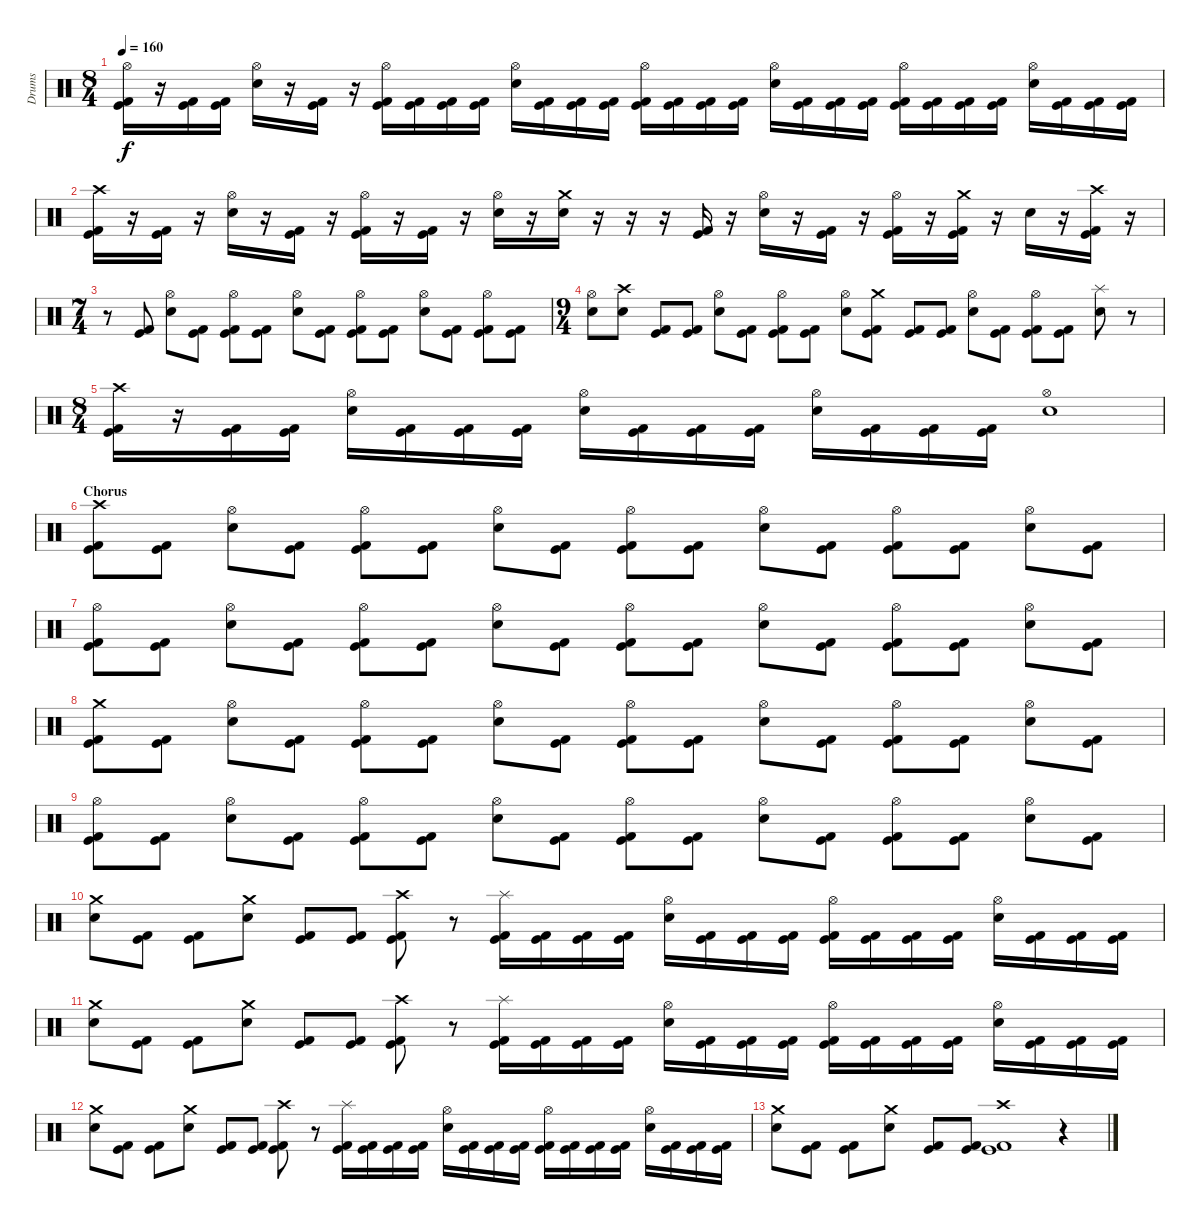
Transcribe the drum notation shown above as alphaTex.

\track ("Drums" "Drums") {instrument percussion}
\staff {score}
\articulation defaults
\ts (8 4)
\tempo 160
\clef neutral
\ks c
("Hi-Hat (open)" "Kick (hit)" "Kick (hit) 2").16{dy f} r.16 ("Kick (hit)" "Kick (hit) 2").16 ("Kick (hit)" "Kick (hit) 2").16 ("Hi-Hat (open)" "Electric Snare (hit)").16 r.16 ("Kick (hit)" "Kick (hit) 2").16 r.16 ("Hi-Hat (open)" "Kick (hit)" "Kick (hit) 2").16 ("Kick (hit)" "Kick (hit) 2").16 ("Kick (hit)" "Kick (hit) 2").16 ("Kick (hit) 2" "Kick (hit)").16 ("Hi-Hat (open)" "Electric Snare (hit)").16 ("Kick (hit)" "Kick (hit) 2").16 ("Kick (hit)" "Kick (hit) 2").16 ("Kick (hit)" "Kick (hit) 2").16 ("Hi-Hat (open)" "Kick (hit)" "Kick (hit) 2").16 ("Kick (hit)" "Kick (hit) 2").16 ("Kick (hit)" "Kick (hit) 2").16 ("Kick (hit)" "Kick (hit) 2").16 ("Hi-Hat (open)" "Electric Snare (hit)").16 ("Kick (hit)" "Kick (hit) 2").16 ("Kick (hit)" "Kick (hit) 2").16 ("Kick (hit)" "Kick (hit) 2").16 ("Hi-Hat (open)" "Kick (hit)" "Kick (hit) 2").16 ("Kick (hit)" "Kick (hit) 2").16 ("Kick (hit)" "Kick (hit) 2").16 ("Kick (hit)" "Kick (hit) 2").16 ("Hi-Hat (open)" "Electric Snare (hit)").16 ("Kick (hit)" "Kick (hit) 2").16 ("Kick (hit)" "Kick (hit) 2").16 ("Kick (hit)" "Kick (hit) 2").16 |
("Crash high (hit)" "Kick (hit)" "Kick (hit) 2").16 r.16 ("Kick (hit)" "Kick (hit) 2").16 r.16 ("Hi-Hat (open)" "Electric Snare (hit)").16 r.16 ("Kick (hit)" "Kick (hit) 2").16 r.16 ("Hi-Hat (open)" "Kick (hit)" "Kick (hit) 2").16 r.16 ("Kick (hit)" "Kick (hit) 2").16 r.16 ("Hi-Hat (open)" "Electric Snare (hit)").16 r.16 ("Crash medium (hit)" "Electric Snare (hit)").16 r.16 r.16 r.16 ("Kick (hit) 2" "Kick (hit)").16 r.16 ("Hi-Hat (open)" "Electric Snare (hit)").16 r.16 ("Kick (hit)" "Kick (hit) 2").16 r.16 ("Hi-Hat (open)" "Kick (hit)" "Kick (hit) 2").16 r.16 ("Crash medium (hit)" "Kick (hit)" "Kick (hit) 2").16 r.16 "Electric Snare (hit)".16 r.16 ("Crash high (hit)" "Kick (hit) 2" "Kick (hit)").16 r.16 |
\ts (7 4)
r.8 ("Kick (hit)" "Kick (hit) 2").8 ("Hi-Hat (open)" "Electric Snare (hit)").8 ("Kick (hit)" "Kick (hit) 2").8 ("Hi-Hat (open)" "Kick (hit)" "Kick (hit) 2").8 ("Kick (hit)" "Kick (hit) 2").8 ("Hi-Hat (open)" "Electric Snare (hit)").8 ("Kick (hit)" "Kick (hit) 2").8 ("Hi-Hat (open)" "Kick (hit)" "Kick (hit) 2").8 ("Kick (hit)" "Kick (hit) 2").8 ("Hi-Hat (open)" "Electric Snare (hit)").8 ("Kick (hit)" "Kick (hit) 2").8 ("Hi-Hat (open)" "Kick (hit)" "Kick (hit) 2").8 ("Kick (hit)" "Kick (hit) 2").8 |
\ts (9 4)
("Hi-Hat (open)" "Electric Snare (hit)").8 ("Crash high (hit)" "Electric Snare (hit)").8 ("Kick (hit)" "Kick (hit) 2").8 ("Kick (hit)" "Kick (hit) 2").8 ("Hi-Hat (open)" "Electric Snare (hit)").8 ("Kick (hit)" "Kick (hit) 2").8 ("Hi-Hat (open)" "Kick (hit)" "Kick (hit) 2").8 ("Kick (hit)" "Kick (hit) 2").8 ("Hi-Hat (open)" "Electric Snare (hit)").8 ("Crash medium (hit)" "Kick (hit)" "Kick (hit) 2").8 ("Kick (hit)" "Kick (hit) 2").8 ("Kick (hit)" "Kick (hit) 2").8 ("Hi-Hat (open)" "Electric Snare (hit)").8 ("Kick (hit)" "Kick (hit) 2").8 ("Hi-Hat (open)" "Kick (hit)" "Kick (hit) 2").8 ("Kick (hit)" "Kick (hit) 2").8 ("Splash (hit)" "Electric Snare (hit)").8 r.8 |
\ts (8 4)
("Crash high (hit)" "Kick (hit)" "Kick (hit) 2").16 r.16 ("Kick (hit)" "Kick (hit) 2").16 ("Kick (hit)" "Kick (hit) 2").16 ("Hi-Hat (open)" "Electric Snare (hit)").16 ("Kick (hit)" "Kick (hit) 2").16 ("Kick (hit)" "Kick (hit) 2").16 ("Kick (hit)" "Kick (hit) 2").16 ("Hi-Hat (open)" "Electric Snare (hit)").16 ("Kick (hit)" "Kick (hit) 2").16 ("Kick (hit)" "Kick (hit) 2").16 ("Kick (hit)" "Kick (hit) 2").16 ("Hi-Hat (open)" "Electric Snare (hit)").16 ("Kick (hit)" "Kick (hit) 2").16 ("Kick (hit)" "Kick (hit) 2").16 ("Kick (hit)" "Kick (hit) 2").16 ("Hi-Hat (open)" "Electric Snare (hit)").1 |
\section ("" "Chorus")
("Crash high (hit)" "Kick (hit)" "Kick (hit) 2").8 ("Kick (hit)" "Kick (hit) 2").8 ("Hi-Hat (open)" "Electric Snare (hit)").8 ("Kick (hit)" "Kick (hit) 2").8 ("Hi-Hat (open)" "Kick (hit)" "Kick (hit) 2").8 ("Kick (hit)" "Kick (hit) 2").8 ("Hi-Hat (open)" "Electric Snare (hit)").8 ("Kick (hit)" "Kick (hit) 2").8 ("Hi-Hat (open)" "Kick (hit)" "Kick (hit) 2").8 ("Kick (hit)" "Kick (hit) 2").8 ("Hi-Hat (open)" "Electric Snare (hit)").8 ("Kick (hit)" "Kick (hit) 2").8 ("Hi-Hat (open)" "Kick (hit)" "Kick (hit) 2").8 ("Kick (hit)" "Kick (hit) 2").8 ("Hi-Hat (open)" "Electric Snare (hit)").8 ("Kick (hit)" "Kick (hit) 2").8 |
("Hi-Hat (open)" "Kick (hit)" "Kick (hit) 2").8 ("Kick (hit)" "Kick (hit) 2").8 ("Hi-Hat (open)" "Electric Snare (hit)").8 ("Kick (hit)" "Kick (hit) 2").8 ("Hi-Hat (open)" "Kick (hit)" "Kick (hit) 2").8 ("Kick (hit)" "Kick (hit) 2").8 ("Hi-Hat (open)" "Electric Snare (hit)").8 ("Kick (hit)" "Kick (hit) 2").8 ("Hi-Hat (open)" "Kick (hit)" "Kick (hit) 2").8 ("Kick (hit)" "Kick (hit) 2").8 ("Hi-Hat (open)" "Electric Snare (hit)").8 ("Kick (hit)" "Kick (hit) 2").8 ("Hi-Hat (open)" "Kick (hit)" "Kick (hit) 2").8 ("Kick (hit)" "Kick (hit) 2").8 ("Hi-Hat (open)" "Electric Snare (hit)").8 ("Kick (hit)" "Kick (hit) 2").8 |
("Crash medium (hit)" "Kick (hit)" "Kick (hit) 2").8 ("Kick (hit)" "Kick (hit) 2").8 ("Hi-Hat (open)" "Electric Snare (hit)").8 ("Kick (hit)" "Kick (hit) 2").8 ("Hi-Hat (open)" "Kick (hit)" "Kick (hit) 2").8 ("Kick (hit)" "Kick (hit) 2").8 ("Hi-Hat (open)" "Electric Snare (hit)").8 ("Kick (hit)" "Kick (hit) 2").8 ("Hi-Hat (open)" "Kick (hit)" "Kick (hit) 2").8 ("Kick (hit)" "Kick (hit) 2").8 ("Hi-Hat (open)" "Electric Snare (hit)").8 ("Kick (hit)" "Kick (hit) 2").8 ("Hi-Hat (open)" "Kick (hit)" "Kick (hit) 2").8 ("Kick (hit)" "Kick (hit) 2").8 ("Hi-Hat (open)" "Electric Snare (hit)").8 ("Kick (hit)" "Kick (hit) 2").8 |
("Hi-Hat (open)" "Kick (hit)" "Kick (hit) 2").8 ("Kick (hit)" "Kick (hit) 2").8 ("Hi-Hat (open)" "Electric Snare (hit)").8 ("Kick (hit)" "Kick (hit) 2").8 ("Hi-Hat (open)" "Kick (hit)" "Kick (hit) 2").8 ("Kick (hit)" "Kick (hit) 2").8 ("Hi-Hat (open)" "Electric Snare (hit)").8 ("Kick (hit)" "Kick (hit) 2").8 ("Hi-Hat (open)" "Kick (hit)" "Kick (hit) 2").8 ("Kick (hit)" "Kick (hit) 2").8 ("Hi-Hat (open)" "Electric Snare (hit)").8 ("Kick (hit)" "Kick (hit) 2").8 ("Hi-Hat (open)" "Kick (hit)" "Kick (hit) 2").8 ("Kick (hit)" "Kick (hit) 2").8 ("Hi-Hat (open)" "Electric Snare (hit)").8 ("Kick (hit)" "Kick (hit) 2").8 |
("Crash medium (hit)" "Electric Snare (hit)").8 ("Kick (hit)" "Kick (hit) 2").8 ("Kick (hit)" "Kick (hit) 2").8 ("Crash medium (hit)" "Electric Snare (hit)").8 ("Kick (hit)" "Kick (hit) 2").8 ("Kick (hit)" "Kick (hit) 2").8 ("Crash high (hit)" "Kick (hit)" "Kick (hit) 2").8 r.8 ("Splash (hit)" "Kick (hit)" "Kick (hit) 2").16 ("Kick (hit)" "Kick (hit) 2").16 ("Kick (hit)" "Kick (hit) 2").16 ("Kick (hit)" "Kick (hit) 2").16 ("Hi-Hat (open)" "Electric Snare (hit)").16 ("Kick (hit)" "Kick (hit) 2").16 ("Kick (hit)" "Kick (hit) 2").16 ("Kick (hit)" "Kick (hit) 2").16 ("Hi-Hat (open)" "Kick (hit)" "Kick (hit) 2").16 ("Kick (hit)" "Kick (hit) 2").16 ("Kick (hit)" "Kick (hit) 2").16 ("Kick (hit)" "Kick (hit) 2").16 ("Hi-Hat (open)" "Electric Snare (hit)").16 ("Kick (hit)" "Kick (hit) 2").16 ("Kick (hit)" "Kick (hit) 2").16 ("Kick (hit)" "Kick (hit) 2").16 |
("Crash medium (hit)" "Electric Snare (hit)").8 ("Kick (hit)" "Kick (hit) 2").8 ("Kick (hit)" "Kick (hit) 2").8 ("Crash medium (hit)" "Electric Snare (hit)").8 ("Kick (hit)" "Kick (hit) 2").8 ("Kick (hit)" "Kick (hit) 2").8 ("Crash high (hit)" "Kick (hit)" "Kick (hit) 2").8 r.8 ("Splash (hit)" "Kick (hit)" "Kick (hit) 2").16 ("Kick (hit)" "Kick (hit) 2").16 ("Kick (hit)" "Kick (hit) 2").16 ("Kick (hit)" "Kick (hit) 2").16 ("Hi-Hat (open)" "Electric Snare (hit)").16 ("Kick (hit)" "Kick (hit) 2").16 ("Kick (hit)" "Kick (hit) 2").16 ("Kick (hit)" "Kick (hit) 2").16 ("Hi-Hat (open)" "Kick (hit)" "Kick (hit) 2").16 ("Kick (hit)" "Kick (hit) 2").16 ("Kick (hit)" "Kick (hit) 2").16 ("Kick (hit)" "Kick (hit) 2").16 ("Hi-Hat (open)" "Electric Snare (hit)").16 ("Kick (hit)" "Kick (hit) 2").16 ("Kick (hit)" "Kick (hit) 2").16 ("Kick (hit)" "Kick (hit) 2").16 |
("Crash medium (hit)" "Electric Snare (hit)").8 ("Kick (hit)" "Kick (hit) 2").8 ("Kick (hit)" "Kick (hit) 2").8 ("Crash medium (hit)" "Electric Snare (hit)").8 ("Kick (hit)" "Kick (hit) 2").8 ("Kick (hit)" "Kick (hit) 2").8 ("Crash high (hit)" "Kick (hit)" "Kick (hit) 2").8 r.8 ("Splash (hit)" "Kick (hit)" "Kick (hit) 2").16 ("Kick (hit)" "Kick (hit) 2").16 ("Kick (hit)" "Kick (hit) 2").16 ("Kick (hit)" "Kick (hit) 2").16 ("Hi-Hat (open)" "Electric Snare (hit)").16 ("Kick (hit)" "Kick (hit) 2").16 ("Kick (hit)" "Kick (hit) 2").16 ("Kick (hit)" "Kick (hit) 2").16 ("Hi-Hat (open)" "Kick (hit)" "Kick (hit) 2").16 ("Kick (hit)" "Kick (hit) 2").16 ("Kick (hit)" "Kick (hit) 2").16 ("Kick (hit)" "Kick (hit) 2").16 ("Hi-Hat (open)" "Electric Snare (hit)").16 ("Kick (hit)" "Kick (hit) 2").16 ("Kick (hit)" "Kick (hit) 2").16 ("Kick (hit)" "Kick (hit) 2").16 |
("Crash medium (hit)" "Electric Snare (hit)").8 ("Kick (hit)" "Kick (hit) 2").8 ("Kick (hit)" "Kick (hit) 2").8 ("Crash medium (hit)" "Electric Snare (hit)").8 ("Kick (hit)" "Kick (hit) 2").8 ("Kick (hit)" "Kick (hit) 2").8 ("Crash high (hit)" "Kick (hit)" "Kick (hit) 2").1 r.4
